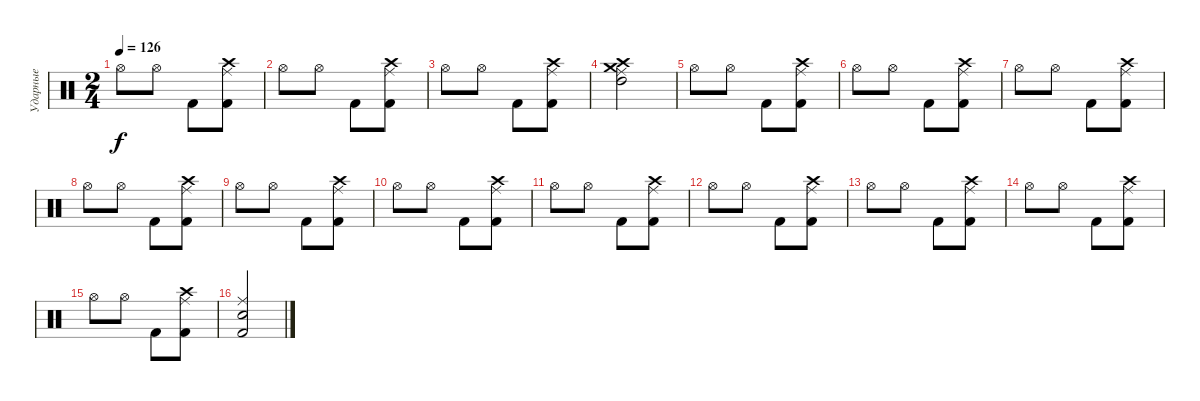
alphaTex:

\track ("Ударные" "Ударные") {instrument percussion}
\staff {score}
\articulation defaults
\ts (2 4)
\tempo 126
\clef neutral
\ks c "Hi-Hat (open)".8{dy f} "Hi-Hat (open)".8 "Kick (hit) 2".8
("Crash high (hit)" "Kick (hit) 2" "Ride (middle)").8 |
"Hi-Hat (open)".8 "Hi-Hat (open)".8 "Kick (hit) 2".8 ("Crash high (hit)" "Kick (hit) 2" "Ride (middle)").8 |
"Hi-Hat (open)".8 "Hi-Hat (open)".8 "Kick (hit) 2".8 ("Crash high (hit)" "Kick (hit) 2" "Ride (middle)").8 |
("Crash high (hit)" "Crash medium (hit)" "Ride (middle)" "High Tom (hit)").2 |
"Hi-Hat (open)".8 "Hi-Hat (open)".8 "Kick (hit) 2".8 ("Crash high (hit)" "Kick (hit) 2" "Ride (middle)").8 |
"Hi-Hat (open)".8 "Hi-Hat (open)".8 "Kick (hit) 2".8 ("Crash high (hit)" "Kick (hit) 2" "Ride (middle)").8 |
"Hi-Hat (open)".8 "Hi-Hat (open)".8 "Kick (hit) 2".8 ("Crash high (hit)" "Kick (hit) 2" "Ride (middle)").8 |
"Hi-Hat (open)".8 "Hi-Hat (open)".8 "Kick (hit) 2".8 ("Crash high (hit)" "Kick (hit) 2" "Ride (middle)").8 |
"Hi-Hat (open)".8 "Hi-Hat (open)".8 "Kick (hit) 2".8 ("Crash high (hit)" "Kick (hit) 2" "Ride (middle)").8 |
"Hi-Hat (open)".8 "Hi-Hat (open)".8 "Kick (hit) 2".8 ("Crash high (hit)" "Kick (hit) 2" "Ride (middle)").8 |
"Hi-Hat (open)".8 "Hi-Hat (open)".8 "Kick (hit) 2".8 ("Crash high (hit)" "Kick (hit) 2" "Ride (middle)").8 |
"Hi-Hat (open)".8 "Hi-Hat (open)".8 "Kick (hit) 2".8 ("Crash high (hit)" "Kick (hit) 2" "Ride (middle)").8 |
"Hi-Hat (open)".8 "Hi-Hat (open)".8 "Kick (hit) 2".8 ("Crash high (hit)" "Kick (hit) 2" "Ride (middle)").8 |
"Hi-Hat (open)".8 "Hi-Hat (open)".8 "Kick (hit) 2".8 ("Crash high (hit)" "Kick (hit) 2" "Ride (middle)").8 |
"Hi-Hat (open)".8 "Hi-Hat (open)".8 "Kick (hit) 2".8 ("Crash high (hit)" "Kick (hit) 2" "Ride (middle)").8 |
("Electric Snare (hit)" "Kick (hit) 2" "Ride (middle)").2
